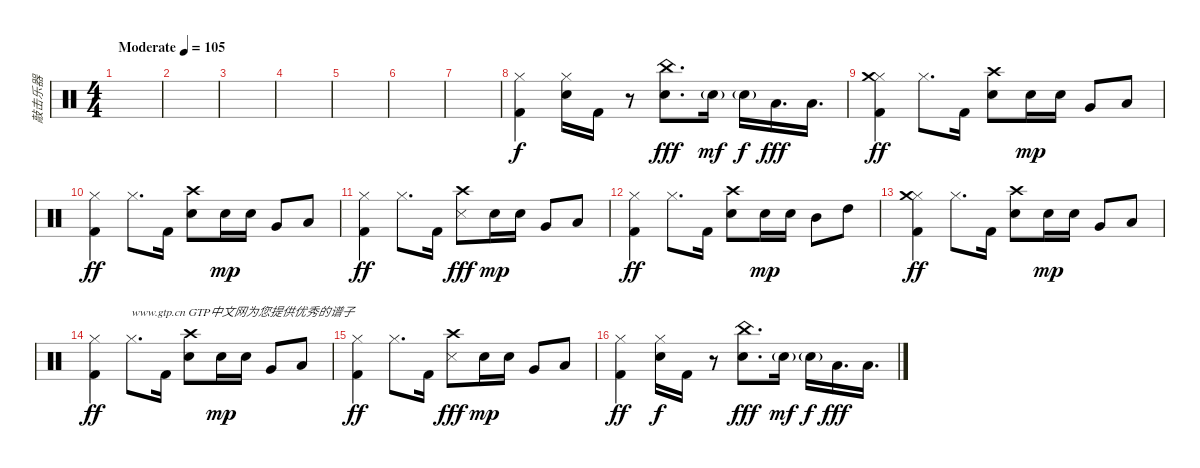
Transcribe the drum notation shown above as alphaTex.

\track ("敲击乐器" "敲击乐器") {instrument percussion}
\staff {score}
\articulation defaults
\ts (4 4)
\tempo (105 "Moderate")
\clef neutral
\ks c
|
|
|
|
|
|
|
("Hi-Hat (closed)" "Kick (hit) 2").4 ("Hi-Hat (closed)" "Electric Snare (hit)").16{dy f} "Kick (hit) 2".16 r.8 ("China (hit)" "Electric Snare (hit)").8{d dy fff} "Electric Snare (hit)"{g}.16{dy mf} "Electric Snare (hit)"{g}.16{dy f} "Low Tom (hit)".16{d dy fff} "Low Floor Tom (hit)".16{d} |
("Hi-Hat (closed)" "Crash medium (hit)" "Kick (hit) 2").4{dy ff} "Hi-Hat (closed)".8{d} "Kick (hit) 2".16 ("Electric Snare (hit)" "Crash high (hit)").8 "Electric Snare (hit)".16{dy mp} "Electric Snare (hit)".16 "Very Low Tom (hit)".8 "Low Floor Tom (hit)".8 |
("Hi-Hat (closed)" "Kick (hit) 2").4{dy ff} "Hi-Hat (closed)".8{d} "Kick (hit) 2".16 ("Electric Snare (hit)" "Crash high (hit)").8 "Electric Snare (hit)".16{dy mp} "Electric Snare (hit)".16 "Very Low Tom (hit)".8 "Low Floor Tom (hit)".8 |
("Hi-Hat (closed)" "Kick (hit) 2").4{dy ff} "Hi-Hat (closed)".8{d} "Kick (hit) 2".16 ("Crash high (hit)" "Snare (side stick) 3").8{dy fff} "Electric Snare (hit)".16{dy mp} "Electric Snare (hit)".16 "Very Low Tom (hit)".8 "Low Floor Tom (hit)".8 |
("Hi-Hat (closed)" "Kick (hit) 2").4{dy ff} "Hi-Hat (closed)".8{d} "Kick (hit) 2".16 ("Electric Snare (hit)" "Crash high (hit)").8 "Electric Snare (hit)".16{dy mp} "Electric Snare (hit)".16 "Mid Tom (hit)".8 "High Tom (hit)".8 |
("Hi-Hat (closed)" "Crash medium (hit)" "Kick (hit) 2").4{dy ff} "Hi-Hat (closed)".8{d} "Kick (hit) 2".16 ("Electric Snare (hit)" "Crash high (hit)").8 "Electric Snare (hit)".16{dy mp} "Electric Snare (hit)".16 "Very Low Tom (hit)".8 "Low Floor Tom (hit)".8 |
("Hi-Hat (closed)" "Kick (hit) 2").4{dy ff} "Hi-Hat (closed)".8{d txt "www.gtp.cn GTP中文网为您提供优秀的谱子"} "Kick (hit) 2".16 ("Electric Snare (hit)" "Crash high (hit)").8 "Electric Snare (hit)".16{dy mp} "Electric Snare (hit)".16 "Very Low Tom (hit)".8 "Low Floor Tom (hit)".8 |
("Hi-Hat (closed)" "Kick (hit) 2").4{dy ff} "Hi-Hat (closed)".8{d} "Kick (hit) 2".16 ("Crash high (hit)" "Snare (side stick) 3").8{dy fff} "Electric Snare (hit)".16{dy mp} "Electric Snare (hit)".16 "Very Low Tom (hit)".8 "Low Floor Tom (hit)".8 |
("Hi-Hat (closed)" "Kick (hit) 2").4{dy ff} ("Hi-Hat (closed)" "Electric Snare (hit)").16{dy f} "Kick (hit) 2".16 r.8 ("China (hit)" "Electric Snare (hit)").8{d dy fff} "Electric Snare (hit)"{g}.16{dy mf} "Electric Snare (hit)"{g}.16{dy f} "Low Tom (hit)".16{d dy fff} "Low Floor Tom (hit)".16{d}
